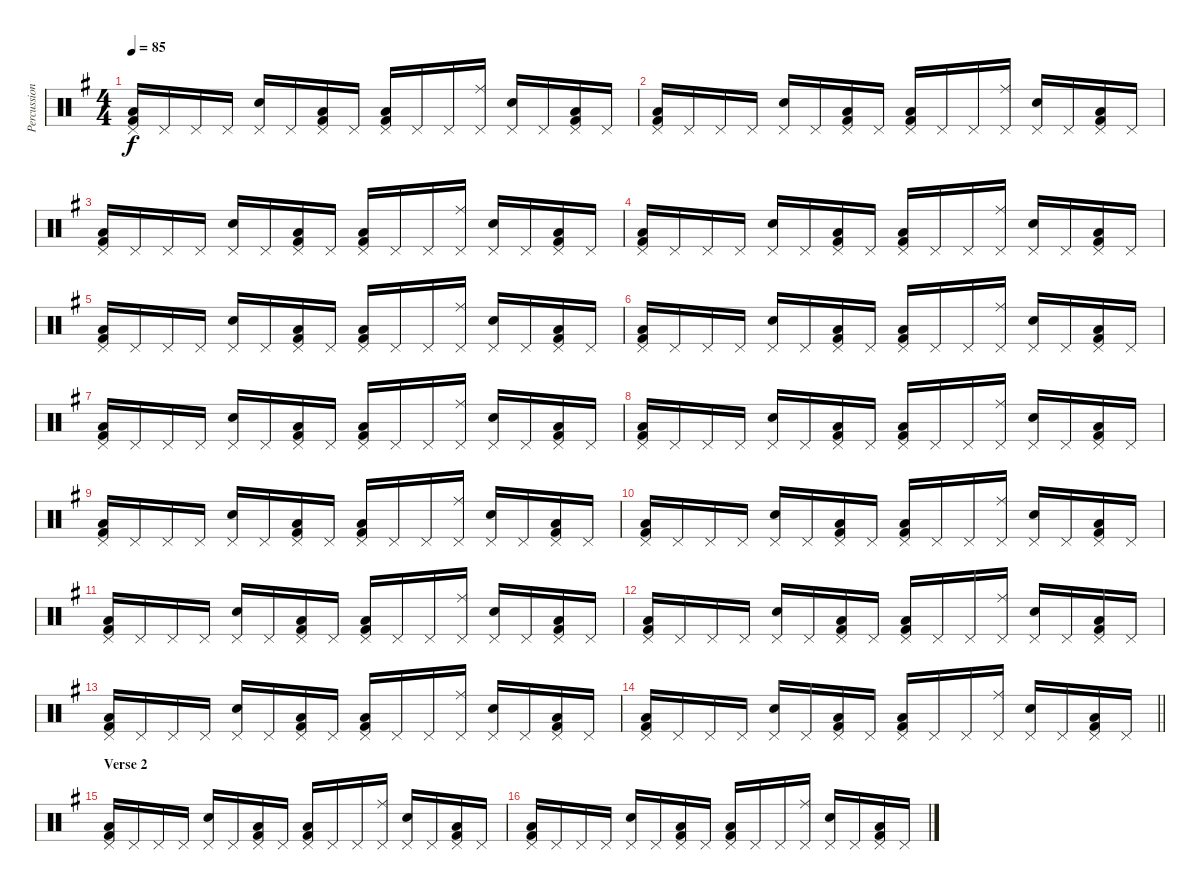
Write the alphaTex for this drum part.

\track ("Percussion" "Percussion") {instrument percussion}
\staff {score}
\articulation defaults
\ts (4 4)
\tempo 85
\clef neutral
\ks g
("Pedal Hi-Hat (hit)" "Low Tom (hit)" "Kick (hit) 2").16{dy f} "Pedal Hi-Hat (hit)".16 "Pedal Hi-Hat (hit)".16 "Pedal Hi-Hat (hit)".16 ("Pedal Hi-Hat (hit)" "Electric Snare (hit)").16 "Pedal Hi-Hat (hit)".16 ("Pedal Hi-Hat (hit)" "Low Floor Tom (hit)" "Kick (hit) 2").16 "Pedal Hi-Hat (hit)".16 ("Pedal Hi-Hat (hit)" "Low Tom (hit)" "Kick (hit) 2").16 "Pedal Hi-Hat (hit)".16 "Pedal Hi-Hat (hit)".16 ("Pedal Hi-Hat (hit)" "Ride (middle)").16 ("Pedal Hi-Hat (hit)" "Electric Snare (hit)").16 "Pedal Hi-Hat (hit)".16 ("Pedal Hi-Hat (hit)" "Low Floor Tom (hit)" "Kick (hit) 2").16 "Pedal Hi-Hat (hit)".16 |
("Pedal Hi-Hat (hit)" "Low Tom (hit)" "Kick (hit) 2").16 "Pedal Hi-Hat (hit)".16 "Pedal Hi-Hat (hit)".16 "Pedal Hi-Hat (hit)".16 ("Pedal Hi-Hat (hit)" "Electric Snare (hit)").16 "Pedal Hi-Hat (hit)".16 ("Pedal Hi-Hat (hit)" "Low Floor Tom (hit)" "Kick (hit) 2").16 "Pedal Hi-Hat (hit)".16 ("Pedal Hi-Hat (hit)" "Low Tom (hit)" "Kick (hit) 2").16 "Pedal Hi-Hat (hit)".16 "Pedal Hi-Hat (hit)".16 ("Pedal Hi-Hat (hit)" "Ride (middle)").16 ("Pedal Hi-Hat (hit)" "Electric Snare (hit)").16 "Pedal Hi-Hat (hit)".16 ("Pedal Hi-Hat (hit)" "Low Floor Tom (hit)" "Kick (hit) 2").16 "Pedal Hi-Hat (hit)".16 |
("Pedal Hi-Hat (hit)" "Low Tom (hit)" "Kick (hit) 2").16 "Pedal Hi-Hat (hit)".16 "Pedal Hi-Hat (hit)".16 "Pedal Hi-Hat (hit)".16 ("Pedal Hi-Hat (hit)" "Electric Snare (hit)").16 "Pedal Hi-Hat (hit)".16 ("Pedal Hi-Hat (hit)" "Low Floor Tom (hit)" "Kick (hit) 2").16 "Pedal Hi-Hat (hit)".16 ("Pedal Hi-Hat (hit)" "Low Tom (hit)" "Kick (hit) 2").16 "Pedal Hi-Hat (hit)".16 "Pedal Hi-Hat (hit)".16 ("Pedal Hi-Hat (hit)" "Ride (middle)").16 ("Pedal Hi-Hat (hit)" "Electric Snare (hit)").16 "Pedal Hi-Hat (hit)".16 ("Pedal Hi-Hat (hit)" "Low Floor Tom (hit)" "Kick (hit) 2").16 "Pedal Hi-Hat (hit)".16 |
("Pedal Hi-Hat (hit)" "Low Tom (hit)" "Kick (hit) 2").16 "Pedal Hi-Hat (hit)".16 "Pedal Hi-Hat (hit)".16 "Pedal Hi-Hat (hit)".16 ("Pedal Hi-Hat (hit)" "Electric Snare (hit)").16 "Pedal Hi-Hat (hit)".16 ("Pedal Hi-Hat (hit)" "Low Floor Tom (hit)" "Kick (hit) 2").16 "Pedal Hi-Hat (hit)".16 ("Pedal Hi-Hat (hit)" "Low Tom (hit)" "Kick (hit) 2").16 "Pedal Hi-Hat (hit)".16 "Pedal Hi-Hat (hit)".16 ("Pedal Hi-Hat (hit)" "Ride (middle)").16 ("Pedal Hi-Hat (hit)" "Electric Snare (hit)").16 "Pedal Hi-Hat (hit)".16 ("Pedal Hi-Hat (hit)" "Low Floor Tom (hit)" "Kick (hit) 2").16 "Pedal Hi-Hat (hit)".16 |
("Pedal Hi-Hat (hit)" "Low Tom (hit)" "Kick (hit) 2").16 "Pedal Hi-Hat (hit)".16 "Pedal Hi-Hat (hit)".16 "Pedal Hi-Hat (hit)".16 ("Pedal Hi-Hat (hit)" "Electric Snare (hit)").16 "Pedal Hi-Hat (hit)".16 ("Pedal Hi-Hat (hit)" "Low Floor Tom (hit)" "Kick (hit) 2").16 "Pedal Hi-Hat (hit)".16 ("Pedal Hi-Hat (hit)" "Low Tom (hit)" "Kick (hit) 2").16 "Pedal Hi-Hat (hit)".16 "Pedal Hi-Hat (hit)".16 ("Pedal Hi-Hat (hit)" "Ride (middle)").16 ("Pedal Hi-Hat (hit)" "Electric Snare (hit)").16 "Pedal Hi-Hat (hit)".16 ("Pedal Hi-Hat (hit)" "Low Floor Tom (hit)" "Kick (hit) 2").16 "Pedal Hi-Hat (hit)".16 |
("Pedal Hi-Hat (hit)" "Low Tom (hit)" "Kick (hit) 2").16 "Pedal Hi-Hat (hit)".16 "Pedal Hi-Hat (hit)".16 "Pedal Hi-Hat (hit)".16 ("Pedal Hi-Hat (hit)" "Electric Snare (hit)").16 "Pedal Hi-Hat (hit)".16 ("Pedal Hi-Hat (hit)" "Low Floor Tom (hit)" "Kick (hit) 2").16 "Pedal Hi-Hat (hit)".16 ("Pedal Hi-Hat (hit)" "Low Tom (hit)" "Kick (hit) 2").16 "Pedal Hi-Hat (hit)".16 "Pedal Hi-Hat (hit)".16 ("Pedal Hi-Hat (hit)" "Ride (middle)").16 ("Pedal Hi-Hat (hit)" "Electric Snare (hit)").16 "Pedal Hi-Hat (hit)".16 ("Pedal Hi-Hat (hit)" "Low Floor Tom (hit)" "Kick (hit) 2").16 "Pedal Hi-Hat (hit)".16 |
("Pedal Hi-Hat (hit)" "Low Tom (hit)" "Kick (hit) 2").16 "Pedal Hi-Hat (hit)".16 "Pedal Hi-Hat (hit)".16 "Pedal Hi-Hat (hit)".16 ("Pedal Hi-Hat (hit)" "Electric Snare (hit)").16 "Pedal Hi-Hat (hit)".16 ("Pedal Hi-Hat (hit)" "Low Floor Tom (hit)" "Kick (hit) 2").16 "Pedal Hi-Hat (hit)".16 ("Pedal Hi-Hat (hit)" "Low Tom (hit)" "Kick (hit) 2").16 "Pedal Hi-Hat (hit)".16 "Pedal Hi-Hat (hit)".16 ("Pedal Hi-Hat (hit)" "Ride (middle)").16 ("Pedal Hi-Hat (hit)" "Electric Snare (hit)").16 "Pedal Hi-Hat (hit)".16 ("Pedal Hi-Hat (hit)" "Low Floor Tom (hit)" "Kick (hit) 2").16 "Pedal Hi-Hat (hit)".16 |
("Pedal Hi-Hat (hit)" "Low Tom (hit)" "Kick (hit) 2").16 "Pedal Hi-Hat (hit)".16 "Pedal Hi-Hat (hit)".16 "Pedal Hi-Hat (hit)".16 ("Pedal Hi-Hat (hit)" "Electric Snare (hit)").16 "Pedal Hi-Hat (hit)".16 ("Pedal Hi-Hat (hit)" "Low Floor Tom (hit)" "Kick (hit) 2").16 "Pedal Hi-Hat (hit)".16 ("Pedal Hi-Hat (hit)" "Low Tom (hit)" "Kick (hit) 2").16 "Pedal Hi-Hat (hit)".16 "Pedal Hi-Hat (hit)".16 ("Pedal Hi-Hat (hit)" "Ride (middle)").16 ("Pedal Hi-Hat (hit)" "Electric Snare (hit)").16 "Pedal Hi-Hat (hit)".16 ("Pedal Hi-Hat (hit)" "Low Floor Tom (hit)" "Kick (hit) 2").16 "Pedal Hi-Hat (hit)".16 |
("Pedal Hi-Hat (hit)" "Low Tom (hit)" "Kick (hit) 2").16 "Pedal Hi-Hat (hit)".16 "Pedal Hi-Hat (hit)".16 "Pedal Hi-Hat (hit)".16 ("Pedal Hi-Hat (hit)" "Electric Snare (hit)").16 "Pedal Hi-Hat (hit)".16 ("Pedal Hi-Hat (hit)" "Low Floor Tom (hit)" "Kick (hit) 2").16 "Pedal Hi-Hat (hit)".16 ("Pedal Hi-Hat (hit)" "Low Tom (hit)" "Kick (hit) 2").16 "Pedal Hi-Hat (hit)".16 "Pedal Hi-Hat (hit)".16 ("Pedal Hi-Hat (hit)" "Ride (middle)").16 ("Pedal Hi-Hat (hit)" "Electric Snare (hit)").16 "Pedal Hi-Hat (hit)".16 ("Pedal Hi-Hat (hit)" "Low Floor Tom (hit)" "Kick (hit) 2").16 "Pedal Hi-Hat (hit)".16 |
("Pedal Hi-Hat (hit)" "Low Tom (hit)" "Kick (hit) 2").16 "Pedal Hi-Hat (hit)".16 "Pedal Hi-Hat (hit)".16 "Pedal Hi-Hat (hit)".16 ("Pedal Hi-Hat (hit)" "Electric Snare (hit)").16 "Pedal Hi-Hat (hit)".16 ("Pedal Hi-Hat (hit)" "Low Floor Tom (hit)" "Kick (hit) 2").16 "Pedal Hi-Hat (hit)".16 ("Pedal Hi-Hat (hit)" "Low Tom (hit)" "Kick (hit) 2").16 "Pedal Hi-Hat (hit)".16 "Pedal Hi-Hat (hit)".16 ("Pedal Hi-Hat (hit)" "Ride (middle)").16 ("Pedal Hi-Hat (hit)" "Electric Snare (hit)").16 "Pedal Hi-Hat (hit)".16 ("Pedal Hi-Hat (hit)" "Low Floor Tom (hit)" "Kick (hit) 2").16 "Pedal Hi-Hat (hit)".16 |
("Pedal Hi-Hat (hit)" "Low Tom (hit)" "Kick (hit) 2").16 "Pedal Hi-Hat (hit)".16 "Pedal Hi-Hat (hit)".16 "Pedal Hi-Hat (hit)".16 ("Pedal Hi-Hat (hit)" "Electric Snare (hit)").16 "Pedal Hi-Hat (hit)".16 ("Pedal Hi-Hat (hit)" "Low Floor Tom (hit)" "Kick (hit) 2").16 "Pedal Hi-Hat (hit)".16 ("Pedal Hi-Hat (hit)" "Low Tom (hit)" "Kick (hit) 2").16 "Pedal Hi-Hat (hit)".16 "Pedal Hi-Hat (hit)".16 ("Pedal Hi-Hat (hit)" "Ride (middle)").16 ("Pedal Hi-Hat (hit)" "Electric Snare (hit)").16 "Pedal Hi-Hat (hit)".16 ("Pedal Hi-Hat (hit)" "Low Floor Tom (hit)" "Kick (hit) 2").16 "Pedal Hi-Hat (hit)".16 |
("Pedal Hi-Hat (hit)" "Low Tom (hit)" "Kick (hit) 2").16 "Pedal Hi-Hat (hit)".16 "Pedal Hi-Hat (hit)".16 "Pedal Hi-Hat (hit)".16 ("Pedal Hi-Hat (hit)" "Electric Snare (hit)").16 "Pedal Hi-Hat (hit)".16 ("Pedal Hi-Hat (hit)" "Low Floor Tom (hit)" "Kick (hit) 2").16 "Pedal Hi-Hat (hit)".16 ("Pedal Hi-Hat (hit)" "Low Tom (hit)" "Kick (hit) 2").16 "Pedal Hi-Hat (hit)".16 "Pedal Hi-Hat (hit)".16 ("Pedal Hi-Hat (hit)" "Ride (middle)").16 ("Pedal Hi-Hat (hit)" "Electric Snare (hit)").16 "Pedal Hi-Hat (hit)".16 ("Pedal Hi-Hat (hit)" "Low Floor Tom (hit)" "Kick (hit) 2").16 "Pedal Hi-Hat (hit)".16 |
("Pedal Hi-Hat (hit)" "Low Tom (hit)" "Kick (hit) 2").16 "Pedal Hi-Hat (hit)".16 "Pedal Hi-Hat (hit)".16 "Pedal Hi-Hat (hit)".16 ("Pedal Hi-Hat (hit)" "Electric Snare (hit)").16 "Pedal Hi-Hat (hit)".16 ("Pedal Hi-Hat (hit)" "Low Floor Tom (hit)" "Kick (hit) 2").16 "Pedal Hi-Hat (hit)".16 ("Pedal Hi-Hat (hit)" "Low Tom (hit)" "Kick (hit) 2").16 "Pedal Hi-Hat (hit)".16 "Pedal Hi-Hat (hit)".16 ("Pedal Hi-Hat (hit)" "Ride (middle)").16 ("Pedal Hi-Hat (hit)" "Electric Snare (hit)").16 "Pedal Hi-Hat (hit)".16 ("Pedal Hi-Hat (hit)" "Low Floor Tom (hit)" "Kick (hit) 2").16 "Pedal Hi-Hat (hit)".16 |
\barLineRight lightlight
("Pedal Hi-Hat (hit)" "Low Tom (hit)" "Kick (hit) 2").16 "Pedal Hi-Hat (hit)".16 "Pedal Hi-Hat (hit)".16 "Pedal Hi-Hat (hit)".16 ("Pedal Hi-Hat (hit)" "Electric Snare (hit)").16 "Pedal Hi-Hat (hit)".16 ("Pedal Hi-Hat (hit)" "Low Floor Tom (hit)" "Kick (hit) 2").16 "Pedal Hi-Hat (hit)".16 ("Pedal Hi-Hat (hit)" "Low Tom (hit)" "Kick (hit) 2").16 "Pedal Hi-Hat (hit)".16 "Pedal Hi-Hat (hit)".16 ("Pedal Hi-Hat (hit)" "Ride (middle)").16 ("Pedal Hi-Hat (hit)" "Electric Snare (hit)").16 "Pedal Hi-Hat (hit)".16 ("Pedal Hi-Hat (hit)" "Low Floor Tom (hit)" "Kick (hit) 2").16 "Pedal Hi-Hat (hit)".16 |
\section ("" "Verse 2")
("Pedal Hi-Hat (hit)" "Low Tom (hit)" "Kick (hit) 2").16 "Pedal Hi-Hat (hit)".16 "Pedal Hi-Hat (hit)".16 "Pedal Hi-Hat (hit)".16 ("Pedal Hi-Hat (hit)" "Electric Snare (hit)").16 "Pedal Hi-Hat (hit)".16 ("Pedal Hi-Hat (hit)" "Low Floor Tom (hit)" "Kick (hit) 2").16 "Pedal Hi-Hat (hit)".16 ("Pedal Hi-Hat (hit)" "Low Tom (hit)" "Kick (hit) 2").16 "Pedal Hi-Hat (hit)".16 "Pedal Hi-Hat (hit)".16 ("Pedal Hi-Hat (hit)" "Ride (middle)").16 ("Pedal Hi-Hat (hit)" "Electric Snare (hit)").16 "Pedal Hi-Hat (hit)".16 ("Pedal Hi-Hat (hit)" "Low Floor Tom (hit)" "Kick (hit) 2").16 "Pedal Hi-Hat (hit)".16 |
("Pedal Hi-Hat (hit)" "Low Tom (hit)" "Kick (hit) 2").16 "Pedal Hi-Hat (hit)".16 "Pedal Hi-Hat (hit)".16 "Pedal Hi-Hat (hit)".16 ("Pedal Hi-Hat (hit)" "Electric Snare (hit)").16 "Pedal Hi-Hat (hit)".16 ("Pedal Hi-Hat (hit)" "Low Floor Tom (hit)" "Kick (hit) 2").16 "Pedal Hi-Hat (hit)".16 ("Pedal Hi-Hat (hit)" "Low Tom (hit)" "Kick (hit) 2").16 "Pedal Hi-Hat (hit)".16 "Pedal Hi-Hat (hit)".16 ("Pedal Hi-Hat (hit)" "Ride (middle)").16 ("Pedal Hi-Hat (hit)" "Electric Snare (hit)").16 "Pedal Hi-Hat (hit)".16 ("Pedal Hi-Hat (hit)" "Low Floor Tom (hit)" "Kick (hit) 2").16 "Pedal Hi-Hat (hit)".16
